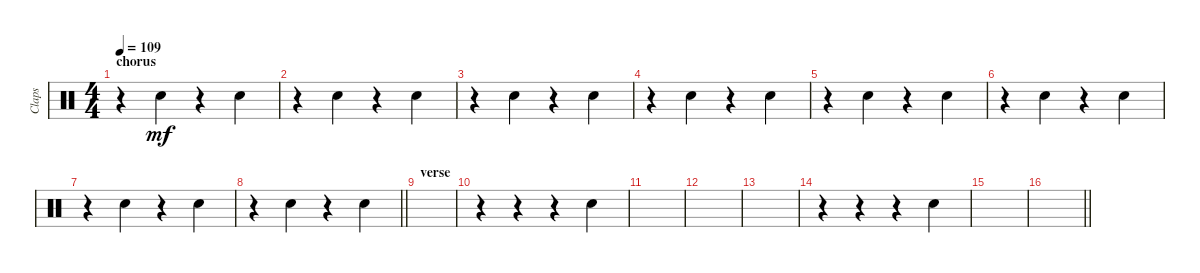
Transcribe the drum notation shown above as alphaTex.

\track ("Claps" "Claps") {instrument percussion}
\staff {score}
\articulation defaults
\ts (4 4)
\section ("" "chorus")
\tempo 109
\clef neutral
\ks c
r.4{dy mf} "Hand Clap (hit)".4 r.4 "Hand Clap (hit)".4 |
r.4 "Hand Clap (hit)".4 r.4 "Hand Clap (hit)".4 |
r.4 "Hand Clap (hit)".4 r.4 "Hand Clap (hit)".4 |
r.4 "Hand Clap (hit)".4 r.4 "Hand Clap (hit)".4 |
r.4 "Hand Clap (hit)".4 r.4 "Hand Clap (hit)".4 |
r.4 "Hand Clap (hit)".4 r.4 "Hand Clap (hit)".4 |
r.4 "Hand Clap (hit)".4 r.4 "Hand Clap (hit)".4 |
\barLineRight lightlight
r.4 "Hand Clap (hit)".4 r.4 "Hand Clap (hit)".4 |
\section ("" "verse")
|
r.4 r.4 r.4 "Hand Clap (hit)".4 |
|
|
|
r.4 r.4 r.4 "Hand Clap (hit)".4 |
|
\barLineRight lightlight
